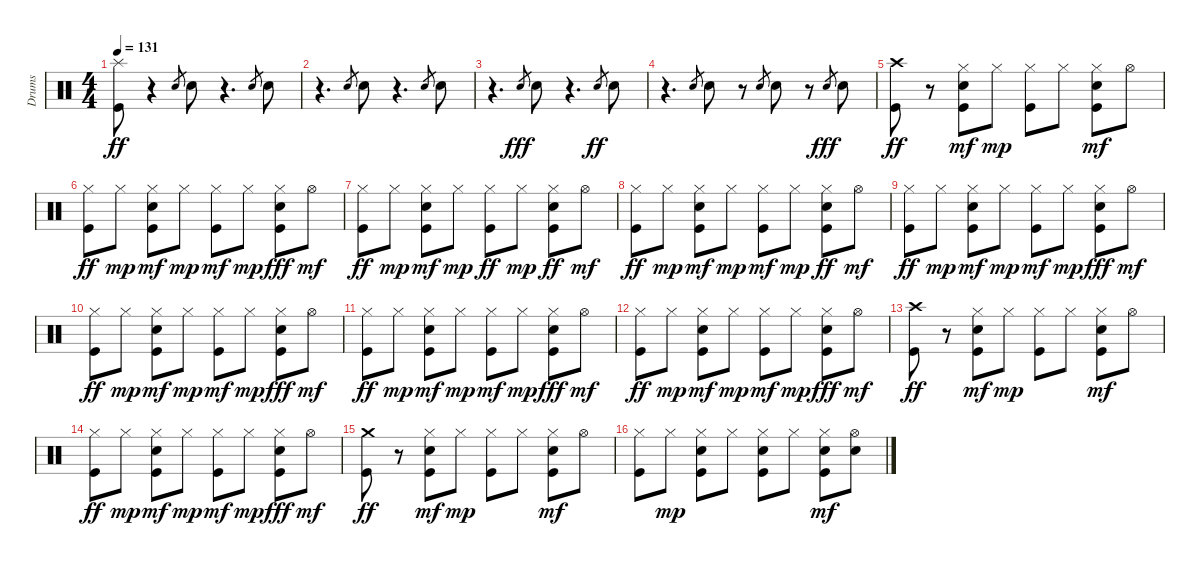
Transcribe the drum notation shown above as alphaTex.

\track ("Drums" "Drums") {instrument percussion}
\staff {score}
\articulation defaults
\ts (4 4)
\tempo 131
\clef neutral
\ks c
("Kick (hit)" "Splash (hit)").8{dy ff} r.4 "Electric Snare (hit)".8{gr} "Snare (hit) 2".8 r.4{d} "Electric Snare (hit)".8{gr} "Snare (hit) 2".8 |
r.4{d} "Electric Snare (hit)".8{gr} "Snare (hit) 2".8 r.4{d} "Electric Snare (hit)".8{gr} "Snare (hit) 2".8 |
r.4{d} "Electric Snare (hit)".8{gr dy fff} "Snare (hit) 2".8 r.4{d} "Electric Snare (hit)".8{gr dy ff} "Snare (hit) 2".8 |
r.4{d} "Electric Snare (hit)".8{gr} "Snare (hit) 2".8 r.8 "Electric Snare (hit)".8{gr} "Snare (hit) 2".8 r.8 "Electric Snare (hit)".8{gr dy fff} "Snare (hit) 2".8 |
("Kick (hit)" "Crash high (hit)").8{dy ff} r.8 ("Kick (hit)" "Snare (hit) 2" "Hi-Hat (closed)").8{dy mf} "Hi-Hat (closed)".8{dy mp} ("Kick (hit)" "Hi-Hat (closed)").8 "Hi-Hat (closed)".8 ("Kick (hit)" "Snare (hit) 2" "Hi-Hat (closed)").8{dy mf} "Hi-Hat (open)".8 |
("Kick (hit)" "Hi-Hat (closed)").8{dy ff} "Hi-Hat (closed)".8{dy mp} ("Kick (hit)" "Snare (hit) 2" "Hi-Hat (closed)").8{dy mf} "Hi-Hat (closed)".8{dy mp} ("Kick (hit)" "Hi-Hat (closed)").8{dy mf} "Hi-Hat (closed)".8{dy mp} ("Kick (hit)" "Snare (hit) 2" "Hi-Hat (closed)").8{dy fff} "Hi-Hat (open)".8{dy mf} |
("Kick (hit)" "Hi-Hat (closed)").8{dy ff} "Hi-Hat (closed)".8{dy mp} ("Kick (hit)" "Snare (hit) 2" "Hi-Hat (closed)").8{dy mf} "Hi-Hat (closed)".8{dy mp} ("Kick (hit)" "Hi-Hat (closed)").8{dy ff} "Hi-Hat (closed)".8{dy mp} ("Kick (hit)" "Snare (hit) 2" "Hi-Hat (closed)").8{dy ff} "Hi-Hat (open)".8{dy mf} |
("Kick (hit)" "Hi-Hat (closed)").8{dy ff} "Hi-Hat (closed)".8{dy mp} ("Kick (hit)" "Snare (hit) 2" "Hi-Hat (closed)").8{dy mf} "Hi-Hat (closed)".8{dy mp} ("Kick (hit)" "Hi-Hat (closed)").8{dy mf} "Hi-Hat (closed)".8{dy mp} ("Kick (hit)" "Snare (hit) 2" "Hi-Hat (closed)").8{dy ff} "Hi-Hat (open)".8{dy mf} |
("Kick (hit)" "Hi-Hat (closed)").8{dy ff} "Hi-Hat (closed)".8{dy mp} ("Kick (hit)" "Snare (hit) 2" "Hi-Hat (closed)").8{dy mf} "Hi-Hat (closed)".8{dy mp} ("Kick (hit)" "Hi-Hat (closed)").8{dy mf} "Hi-Hat (closed)".8{dy mp} ("Kick (hit)" "Snare (hit) 2" "Hi-Hat (closed)").8{dy fff} "Hi-Hat (open)".8{dy mf} |
("Kick (hit)" "Hi-Hat (closed)").8{dy ff} "Hi-Hat (closed)".8{dy mp} ("Kick (hit)" "Snare (hit) 2" "Hi-Hat (closed)").8{dy mf} "Hi-Hat (closed)".8{dy mp} ("Kick (hit)" "Hi-Hat (closed)").8{dy mf} "Hi-Hat (closed)".8{dy mp} ("Kick (hit)" "Snare (hit) 2" "Hi-Hat (closed)").8{dy fff} "Hi-Hat (open)".8{dy mf} |
("Kick (hit)" "Hi-Hat (closed)").8{dy ff} "Hi-Hat (closed)".8{dy mp} ("Kick (hit)" "Snare (hit) 2" "Hi-Hat (closed)").8{dy mf} "Hi-Hat (closed)".8{dy mp} ("Kick (hit)" "Hi-Hat (closed)").8{dy mf} "Hi-Hat (closed)".8{dy mp} ("Kick (hit)" "Snare (hit) 2" "Hi-Hat (closed)").8{dy fff} "Hi-Hat (open)".8{dy mf} |
("Kick (hit)" "Hi-Hat (closed)").8{dy ff} "Hi-Hat (closed)".8{dy mp} ("Kick (hit)" "Snare (hit) 2" "Hi-Hat (closed)").8{dy mf} "Hi-Hat (closed)".8{dy mp} ("Kick (hit)" "Hi-Hat (closed)").8{dy mf} "Hi-Hat (closed)".8{dy mp} ("Kick (hit)" "Snare (hit) 2" "Hi-Hat (closed)").8{dy fff} "Hi-Hat (open)".8{dy mf} |
("Kick (hit)" "Crash high (hit)").8{dy ff} r.8 ("Kick (hit)" "Snare (hit) 2" "Hi-Hat (closed)").8{dy mf} "Hi-Hat (closed)".8{dy mp} ("Kick (hit)" "Hi-Hat (closed)").8 "Hi-Hat (closed)".8 ("Kick (hit)" "Snare (hit) 2" "Hi-Hat (closed)").8{dy mf} "Hi-Hat (open)".8 |
("Kick (hit)" "Hi-Hat (closed)").8{dy ff} "Hi-Hat (closed)".8{dy mp} ("Kick (hit)" "Snare (hit) 2" "Hi-Hat (closed)").8{dy mf} "Hi-Hat (closed)".8{dy mp} ("Kick (hit)" "Hi-Hat (closed)").8{dy mf} "Hi-Hat (closed)".8{dy mp} ("Kick (hit)" "Snare (hit) 2" "Hi-Hat (closed)").8{dy fff} "Hi-Hat (open)".8{dy mf} |
("Kick (hit)" "Crash medium (hit)").8{dy ff} r.8 ("Kick (hit)" "Snare (hit) 2" "Hi-Hat (closed)").8{dy mf} "Hi-Hat (closed)".8{dy mp} ("Kick (hit)" "Hi-Hat (closed)").8 "Hi-Hat (closed)".8 ("Kick (hit)" "Snare (hit) 2" "Hi-Hat (closed)").8{dy mf} "Hi-Hat (open)".8 |
("Kick (hit)" "Hi-Hat (closed)").8 "Hi-Hat (closed)".8{dy mp} ("Kick (hit)" "Snare (hit) 2" "Hi-Hat (closed)").8 "Hi-Hat (closed)".8 ("Kick (hit)" "Snare (hit) 2" "Hi-Hat (closed)").8 "Hi-Hat (closed)".8 ("Kick (hit)" "Snare (hit) 2" "Hi-Hat (closed)").8{dy mf} ("Snare (hit) 2" "Hi-Hat (open)").8
